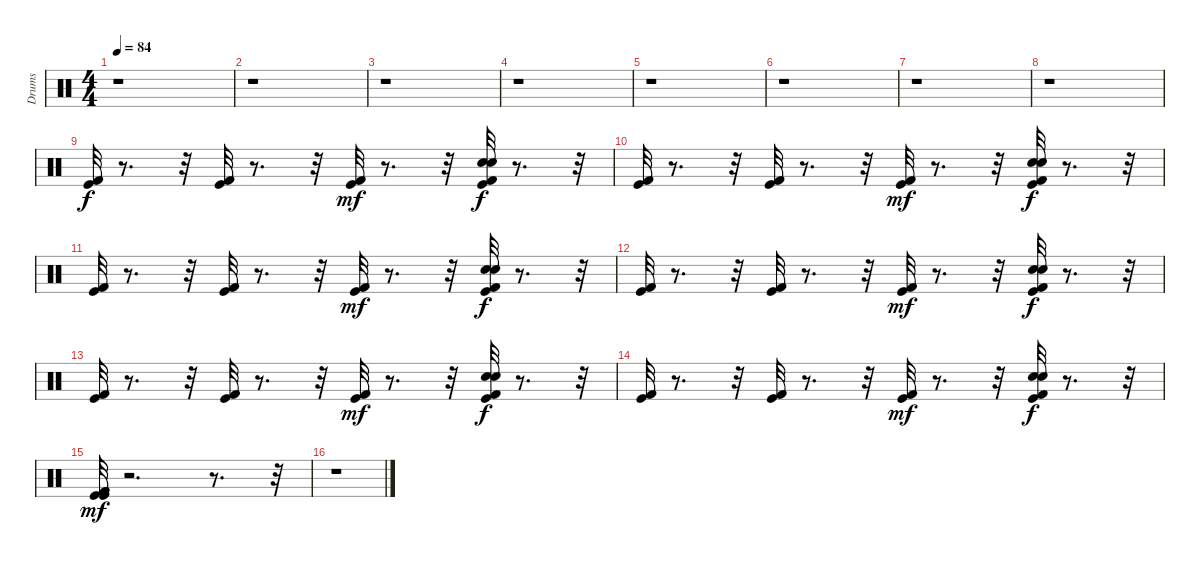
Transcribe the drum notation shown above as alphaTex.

\track ("Drums" "Drums") {instrument percussion}
\staff {score}
\articulation defaults
\ts (4 4)
\tempo 84
\clef neutral
\ks c
r.1{dy mf} |
r.1 |
r.1 |
r.1 |
r.1 |
r.1 |
r.1 |
r.1 |
("Kick (hit) 2" "Kick (hit)").32{dy f} r.8{d} r.32 ("Kick (hit) 2" "Kick (hit)").32 r.8{d} r.32 ("Kick (hit) 2" "Kick (hit)").32{dy mf} r.8{d} r.32 ("Electric Snare (hit)" "Kick (hit) 2" "Kick (hit)" "Snare (hit) 2").32{dy f} r.8{d} r.32 |
("Kick (hit) 2" "Kick (hit)").32 r.8{d} r.32 ("Kick (hit) 2" "Kick (hit)").32 r.8{d} r.32 ("Kick (hit) 2" "Kick (hit)").32{dy mf} r.8{d} r.32 ("Electric Snare (hit)" "Kick (hit) 2" "Kick (hit)" "Snare (hit) 2").32{dy f} r.8{d} r.32 |
("Kick (hit) 2" "Kick (hit)").32 r.8{d} r.32 ("Kick (hit) 2" "Kick (hit)").32 r.8{d} r.32 ("Kick (hit) 2" "Kick (hit)").32{dy mf} r.8{d} r.32 ("Electric Snare (hit)" "Kick (hit) 2" "Kick (hit)" "Snare (hit) 2").32{dy f} r.8{d} r.32 |
("Kick (hit) 2" "Kick (hit)").32 r.8{d} r.32 ("Kick (hit) 2" "Kick (hit)").32 r.8{d} r.32 ("Kick (hit) 2" "Kick (hit)").32{dy mf} r.8{d} r.32 ("Electric Snare (hit)" "Kick (hit) 2" "Kick (hit)" "Snare (hit) 2").32{dy f} r.8{d} r.32 |
("Kick (hit) 2" "Kick (hit)").32 r.8{d} r.32 ("Kick (hit) 2" "Kick (hit)").32 r.8{d} r.32 ("Kick (hit) 2" "Kick (hit)").32{dy mf} r.8{d} r.32 ("Electric Snare (hit)" "Kick (hit) 2" "Kick (hit)" "Snare (hit) 2").32{dy f} r.8{d} r.32 |
("Kick (hit) 2" "Kick (hit)").32 r.8{d} r.32 ("Kick (hit) 2" "Kick (hit)").32 r.8{d} r.32 ("Kick (hit) 2" "Kick (hit)").32{dy mf} r.8{d} r.32 ("Electric Snare (hit)" "Kick (hit) 2" "Kick (hit)" "Snare (hit) 2").32{dy f} r.8{d} r.32 |
("Kick (hit) 2" "Kick (hit)" "Kick (hit) 2" "Kick (hit)").32{dy mf} r.2{d} r.8{d} r.32 |
r.1
